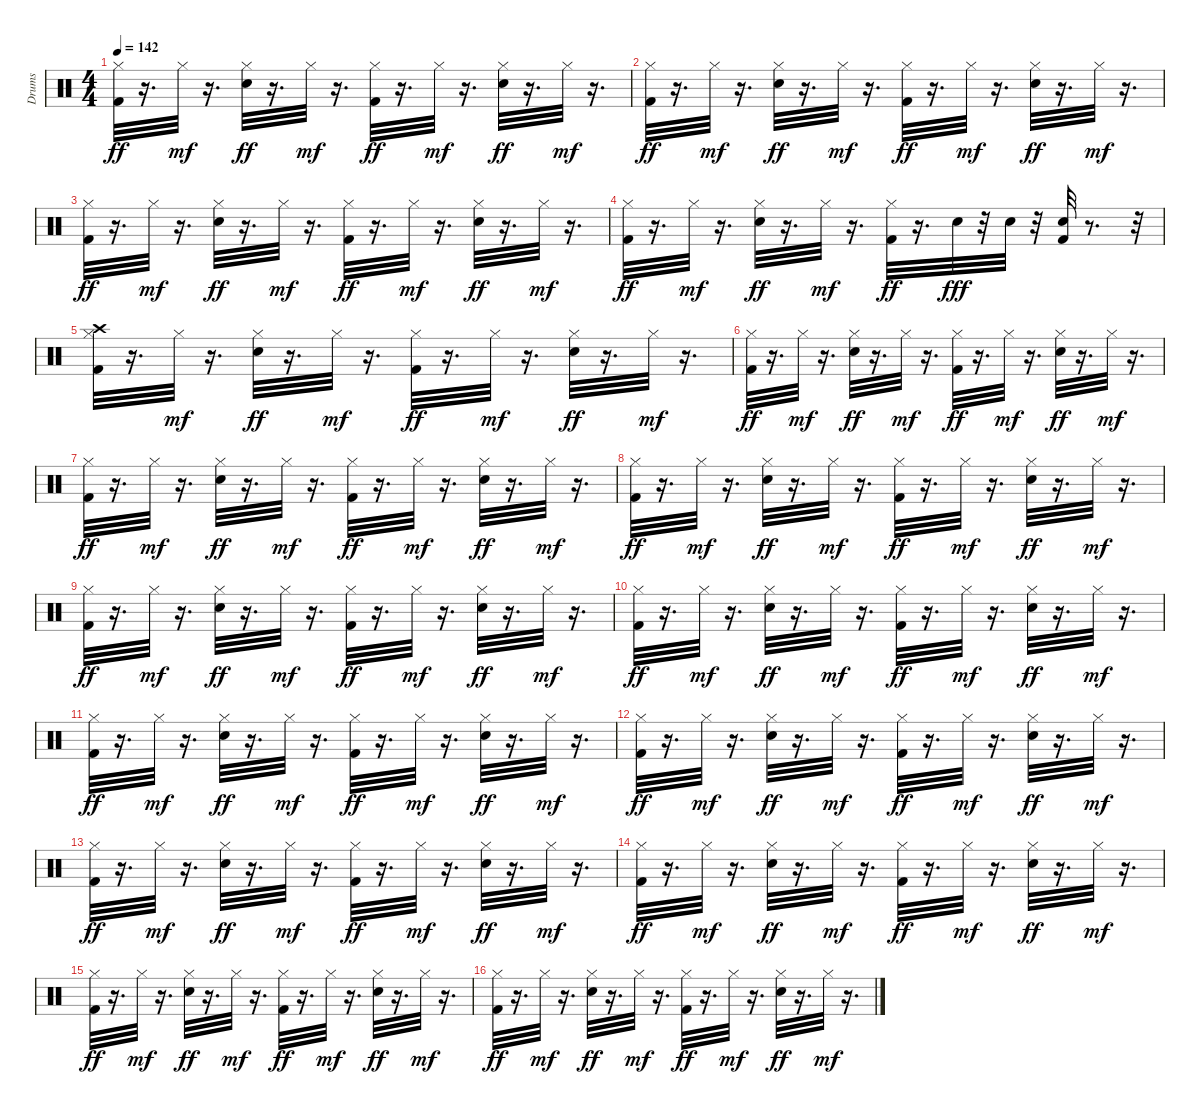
\track ("Drums" "Drums") {instrument percussion}
\staff {score}
\articulation defaults
\ts (4 4)
\tempo 142
\clef neutral
\ks c
("Kick (hit) 2" "Hi-Hat (closed)").32{dy ff} r.16{d} "Hi-Hat (closed)".32{dy mf} r.16{d} ("Snare (hit) 2" "Hi-Hat (closed)").32{dy ff} r.16{d} "Hi-Hat (closed)".32{dy mf} r.16{d} ("Kick (hit) 2" "Hi-Hat (closed)").32{dy ff} r.16{d} "Hi-Hat (closed)".32{dy mf} r.16{d} ("Snare (hit) 2" "Hi-Hat (closed)").32{dy ff} r.16{d} "Hi-Hat (closed)".32{dy mf} r.16{d} |
("Kick (hit) 2" "Hi-Hat (closed)").32{dy ff} r.16{d} "Hi-Hat (closed)".32{dy mf} r.16{d} ("Snare (hit) 2" "Hi-Hat (closed)").32{dy ff} r.16{d} "Hi-Hat (closed)".32{dy mf} r.16{d} ("Kick (hit) 2" "Hi-Hat (closed)").32{dy ff} r.16{d} "Hi-Hat (closed)".32{dy mf} r.16{d} ("Snare (hit) 2" "Hi-Hat (closed)").32{dy ff} r.16{d} "Hi-Hat (closed)".32{dy mf} r.16{d} |
("Kick (hit) 2" "Hi-Hat (closed)").32{dy ff} r.16{d} "Hi-Hat (closed)".32{dy mf} r.16{d} ("Snare (hit) 2" "Hi-Hat (closed)").32{dy ff} r.16{d} "Hi-Hat (closed)".32{dy mf} r.16{d} ("Kick (hit) 2" "Hi-Hat (closed)").32{dy ff} r.16{d} "Hi-Hat (closed)".32{dy mf} r.16{d} ("Snare (hit) 2" "Hi-Hat (closed)").32{dy ff} r.16{d} "Hi-Hat (closed)".32{dy mf} r.16{d} |
("Kick (hit) 2" "Hi-Hat (closed)").32{dy ff} r.16{d} "Hi-Hat (closed)".32{dy mf} r.16{d} ("Snare (hit) 2" "Hi-Hat (closed)").32{dy ff} r.16{d} "Hi-Hat (closed)".32{dy mf} r.16{d} ("Kick (hit) 2" "Hi-Hat (closed)").32{dy ff} r.16{d} "Snare (hit) 2".32{dy fff} r.32 "Snare (hit) 2".32 r.32 ("Kick (hit) 2" "Snare (hit) 2").32 r.8{d} r.32 |
("Kick (hit) 2" "Hi-Hat (closed)" "Crash high (hit)").32 r.16{d} "Hi-Hat (closed)".32{dy mf} r.16{d} ("Snare (hit) 2" "Hi-Hat (closed)").32{dy ff} r.16{d} "Hi-Hat (closed)".32{dy mf} r.16{d} ("Kick (hit) 2" "Hi-Hat (closed)").32{dy ff} r.16{d} "Hi-Hat (closed)".32{dy mf} r.16{d} ("Snare (hit) 2" "Hi-Hat (closed)").32{dy ff} r.16{d} "Hi-Hat (closed)".32{dy mf} r.16{d} |
("Kick (hit) 2" "Hi-Hat (closed)").32{dy ff} r.16{d} "Hi-Hat (closed)".32{dy mf} r.16{d} ("Snare (hit) 2" "Hi-Hat (closed)").32{dy ff} r.16{d} "Hi-Hat (closed)".32{dy mf} r.16{d} ("Kick (hit) 2" "Hi-Hat (closed)").32{dy ff} r.16{d} "Hi-Hat (closed)".32{dy mf} r.16{d} ("Snare (hit) 2" "Hi-Hat (closed)").32{dy ff} r.16{d} "Hi-Hat (closed)".32{dy mf} r.16{d} |
("Kick (hit) 2" "Hi-Hat (closed)").32{dy ff} r.16{d} "Hi-Hat (closed)".32{dy mf} r.16{d} ("Snare (hit) 2" "Hi-Hat (closed)").32{dy ff} r.16{d} "Hi-Hat (closed)".32{dy mf} r.16{d} ("Kick (hit) 2" "Hi-Hat (closed)").32{dy ff} r.16{d} "Hi-Hat (closed)".32{dy mf} r.16{d} ("Snare (hit) 2" "Hi-Hat (closed)").32{dy ff} r.16{d} "Hi-Hat (closed)".32{dy mf} r.16{d} |
("Kick (hit) 2" "Hi-Hat (closed)").32{dy ff} r.16{d} "Hi-Hat (closed)".32{dy mf} r.16{d} ("Snare (hit) 2" "Hi-Hat (closed)").32{dy ff} r.16{d} "Hi-Hat (closed)".32{dy mf} r.16{d} ("Kick (hit) 2" "Hi-Hat (closed)").32{dy ff} r.16{d} "Hi-Hat (closed)".32{dy mf} r.16{d} ("Snare (hit) 2" "Hi-Hat (closed)").32{dy ff} r.16{d} "Hi-Hat (closed)".32{dy mf} r.16{d} |
("Kick (hit) 2" "Hi-Hat (closed)").32{dy ff} r.16{d} "Hi-Hat (closed)".32{dy mf} r.16{d} ("Snare (hit) 2" "Hi-Hat (closed)").32{dy ff} r.16{d} "Hi-Hat (closed)".32{dy mf} r.16{d} ("Kick (hit) 2" "Hi-Hat (closed)").32{dy ff} r.16{d} "Hi-Hat (closed)".32{dy mf} r.16{d} ("Snare (hit) 2" "Hi-Hat (closed)").32{dy ff} r.16{d} "Hi-Hat (closed)".32{dy mf} r.16{d} |
("Kick (hit) 2" "Hi-Hat (closed)").32{dy ff} r.16{d} "Hi-Hat (closed)".32{dy mf} r.16{d} ("Snare (hit) 2" "Hi-Hat (closed)").32{dy ff} r.16{d} "Hi-Hat (closed)".32{dy mf} r.16{d} ("Kick (hit) 2" "Hi-Hat (closed)").32{dy ff} r.16{d} "Hi-Hat (closed)".32{dy mf} r.16{d} ("Snare (hit) 2" "Hi-Hat (closed)").32{dy ff} r.16{d} "Hi-Hat (closed)".32{dy mf} r.16{d} |
("Kick (hit) 2" "Hi-Hat (closed)").32{dy ff} r.16{d} "Hi-Hat (closed)".32{dy mf} r.16{d} ("Snare (hit) 2" "Hi-Hat (closed)").32{dy ff} r.16{d} "Hi-Hat (closed)".32{dy mf} r.16{d} ("Kick (hit) 2" "Hi-Hat (closed)").32{dy ff} r.16{d} "Hi-Hat (closed)".32{dy mf} r.16{d} ("Snare (hit) 2" "Hi-Hat (closed)").32{dy ff} r.16{d} "Hi-Hat (closed)".32{dy mf} r.16{d} |
("Kick (hit) 2" "Hi-Hat (closed)").32{dy ff} r.16{d} "Hi-Hat (closed)".32{dy mf} r.16{d} ("Snare (hit) 2" "Hi-Hat (closed)").32{dy ff} r.16{d} "Hi-Hat (closed)".32{dy mf} r.16{d} ("Kick (hit) 2" "Hi-Hat (closed)").32{dy ff} r.16{d} "Hi-Hat (closed)".32{dy mf} r.16{d} ("Snare (hit) 2" "Hi-Hat (closed)").32{dy ff} r.16{d} "Hi-Hat (closed)".32{dy mf} r.16{d} |
("Kick (hit) 2" "Hi-Hat (closed)").32{dy ff} r.16{d} "Hi-Hat (closed)".32{dy mf} r.16{d} ("Snare (hit) 2" "Hi-Hat (closed)").32{dy ff} r.16{d} "Hi-Hat (closed)".32{dy mf} r.16{d} ("Kick (hit) 2" "Hi-Hat (closed)").32{dy ff} r.16{d} "Hi-Hat (closed)".32{dy mf} r.16{d} ("Snare (hit) 2" "Hi-Hat (closed)").32{dy ff} r.16{d} "Hi-Hat (closed)".32{dy mf} r.16{d} |
("Kick (hit) 2" "Hi-Hat (closed)").32{dy ff} r.16{d} "Hi-Hat (closed)".32{dy mf} r.16{d} ("Snare (hit) 2" "Hi-Hat (closed)").32{dy ff} r.16{d} "Hi-Hat (closed)".32{dy mf} r.16{d} ("Kick (hit) 2" "Hi-Hat (closed)").32{dy ff} r.16{d} "Hi-Hat (closed)".32{dy mf} r.16{d} ("Snare (hit) 2" "Hi-Hat (closed)").32{dy ff} r.16{d} "Hi-Hat (closed)".32{dy mf} r.16{d} |
("Kick (hit) 2" "Hi-Hat (closed)").32{dy ff} r.16{d} "Hi-Hat (closed)".32{dy mf} r.16{d} ("Snare (hit) 2" "Hi-Hat (closed)").32{dy ff} r.16{d} "Hi-Hat (closed)".32{dy mf} r.16{d} ("Kick (hit) 2" "Hi-Hat (closed)").32{dy ff} r.16{d} "Hi-Hat (closed)".32{dy mf} r.16{d} ("Snare (hit) 2" "Hi-Hat (closed)").32{dy ff} r.16{d} "Hi-Hat (closed)".32{dy mf} r.16{d} |
("Kick (hit) 2" "Hi-Hat (closed)").32{dy ff} r.16{d} "Hi-Hat (closed)".32{dy mf} r.16{d} ("Snare (hit) 2" "Hi-Hat (closed)").32{dy ff} r.16{d} "Hi-Hat (closed)".32{dy mf} r.16{d} ("Kick (hit) 2" "Hi-Hat (closed)").32{dy ff} r.16{d} "Hi-Hat (closed)".32{dy mf} r.16{d} ("Snare (hit) 2" "Hi-Hat (closed)").32{dy ff} r.16{d} "Hi-Hat (closed)".32{dy mf} r.16{d}
